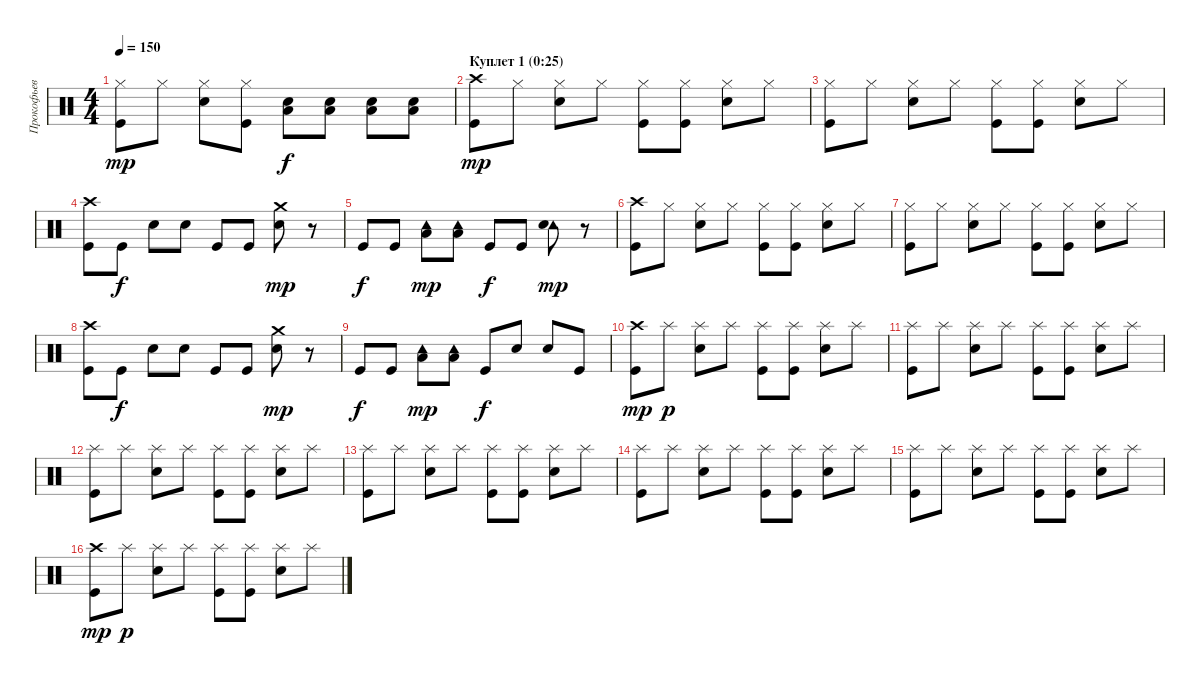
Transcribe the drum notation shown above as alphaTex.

\track ("Прокофьев (Барабаны)" "Прокофьев ") {instrument percussion}
\staff {score}
\articulation defaults
\ts (4 4)
\tempo 150
\clef neutral
\ks c
("Hi-Hat (closed)" "Kick (hit)").8{dy mp} "Hi-Hat (closed)".8 ("Hi-Hat (closed)" "Electric Snare (hit)").8 ("Hi-Hat (closed)" "Kick (hit)").8 ("Low Tom (hit)" "Electric Snare (hit)").8{dy f} ("Low Tom (hit)" "Electric Snare (hit)").8 ("Low Tom (hit)" "Electric Snare (hit)").8 ("Low Tom (hit)" "Electric Snare (hit)").8 |
\section ("" "Куплет 1 (0:25)")
("Crash high (hit)" "Kick (hit)").8{dy mp} "Hi-Hat (closed)".8 ("Hi-Hat (closed)" "Electric Snare (hit)").8 "Hi-Hat (closed)".8 ("Hi-Hat (closed)" "Kick (hit)").8 ("Hi-Hat (closed)" "Kick (hit)").8 ("Hi-Hat (closed)" "Electric Snare (hit)").8 "Hi-Hat (closed)".8 |
("Hi-Hat (closed)" "Kick (hit)").8 "Hi-Hat (closed)".8 ("Hi-Hat (closed)" "Electric Snare (hit)").8 "Hi-Hat (closed)".8 ("Hi-Hat (closed)" "Kick (hit)").8 ("Hi-Hat (closed)" "Kick (hit)").8 ("Hi-Hat (closed)" "Electric Snare (hit)").8 "Hi-Hat (closed)".8 |
("Crash high (hit)" "Kick (hit)").8 "Kick (hit)".8{dy f} "Electric Snare (hit)".8 "Electric Snare (hit)".8 "Kick (hit)".8 "Kick (hit)".8 ("Crash medium (hit)" "Electric Snare (hit)").8{dy mp} r.8 |
"Kick (hit)".8{dy f} "Kick (hit)".8 ("Tambourine (hit)" "Low Tom (hit)").8{dy mp} ("Tambourine (hit)" "Low Tom (hit)").8 "Kick (hit)".8{dy f} "Kick (hit)".8 ("Tambourine (hit)" "Electric Snare (hit)").8{dy mp} r.8 |
("Crash high (hit)" "Kick (hit)").8 "Hi-Hat (closed)".8 ("Hi-Hat (closed)" "Electric Snare (hit)").8 "Hi-Hat (closed)".8 ("Hi-Hat (closed)" "Kick (hit)").8 ("Hi-Hat (closed)" "Kick (hit)").8 ("Hi-Hat (closed)" "Electric Snare (hit)").8 "Hi-Hat (closed)".8 |
("Hi-Hat (closed)" "Kick (hit)").8 "Hi-Hat (closed)".8 ("Hi-Hat (closed)" "Electric Snare (hit)").8 "Hi-Hat (closed)".8 ("Hi-Hat (closed)" "Kick (hit)").8 ("Hi-Hat (closed)" "Kick (hit)").8 ("Hi-Hat (closed)" "Electric Snare (hit)").8 "Hi-Hat (closed)".8 |
("Crash high (hit)" "Kick (hit)").8 "Kick (hit)".8{dy f} "Electric Snare (hit)".8 "Electric Snare (hit)".8 "Kick (hit)".8 "Kick (hit)".8 ("Crash medium (hit)" "Electric Snare (hit)").8{dy mp} r.8 |
"Kick (hit)".8{dy f} "Kick (hit)".8 ("Tambourine (hit)" "Low Tom (hit)").8{dy mp} ("Tambourine (hit)" "Low Tom (hit)").8 "Kick (hit)".8{dy f} "Electric Snare (hit)".8 "Electric Snare (hit)".8 "Kick (hit)".8 |
("Crash high (hit)" "Kick (hit)").8{dy mp} "Splash (hit)".8{dy p} ("Splash (hit)" "Electric Snare (hit)").8 "Splash (hit)".8 ("Splash (hit)" "Kick (hit)").8 ("Splash (hit)" "Kick (hit)").8 ("Splash (hit)" "Electric Snare (hit)").8 "Splash (hit)".8 |
("Splash (hit)" "Kick (hit)").8 "Splash (hit)".8 ("Splash (hit)" "Electric Snare (hit)").8 "Splash (hit)".8 ("Splash (hit)" "Kick (hit)").8 ("Splash (hit)" "Kick (hit)").8 ("Splash (hit)" "Electric Snare (hit)").8 "Splash (hit)".8 |
("Splash (hit)" "Kick (hit)").8 "Splash (hit)".8 ("Splash (hit)" "Electric Snare (hit)").8 "Splash (hit)".8 ("Splash (hit)" "Kick (hit)").8 ("Splash (hit)" "Kick (hit)").8 ("Splash (hit)" "Electric Snare (hit)").8 "Splash (hit)".8 |
("Splash (hit)" "Kick (hit)").8 "Splash (hit)".8 ("Splash (hit)" "Electric Snare (hit)").8 "Splash (hit)".8 ("Splash (hit)" "Kick (hit)").8 ("Splash (hit)" "Kick (hit)").8 ("Splash (hit)" "Electric Snare (hit)").8 "Splash (hit)".8 |
("Splash (hit)" "Kick (hit)").8 "Splash (hit)".8 ("Splash (hit)" "Electric Snare (hit)").8 "Splash (hit)".8 ("Splash (hit)" "Kick (hit)").8 ("Splash (hit)" "Kick (hit)").8 ("Splash (hit)" "Electric Snare (hit)").8 "Splash (hit)".8 |
("Splash (hit)" "Kick (hit)").8 "Splash (hit)".8 ("Splash (hit)" "Electric Snare (hit)").8 "Splash (hit)".8 ("Splash (hit)" "Kick (hit)").8 ("Splash (hit)" "Kick (hit)").8 ("Splash (hit)" "Electric Snare (hit)").8 "Splash (hit)".8 |
("Crash high (hit)" "Kick (hit)").8{dy mp} "Splash (hit)".8{dy p} ("Splash (hit)" "Electric Snare (hit)").8 "Splash (hit)".8 ("Splash (hit)" "Kick (hit)").8 ("Splash (hit)" "Kick (hit)").8 ("Splash (hit)" "Electric Snare (hit)").8 "Splash (hit)".8
